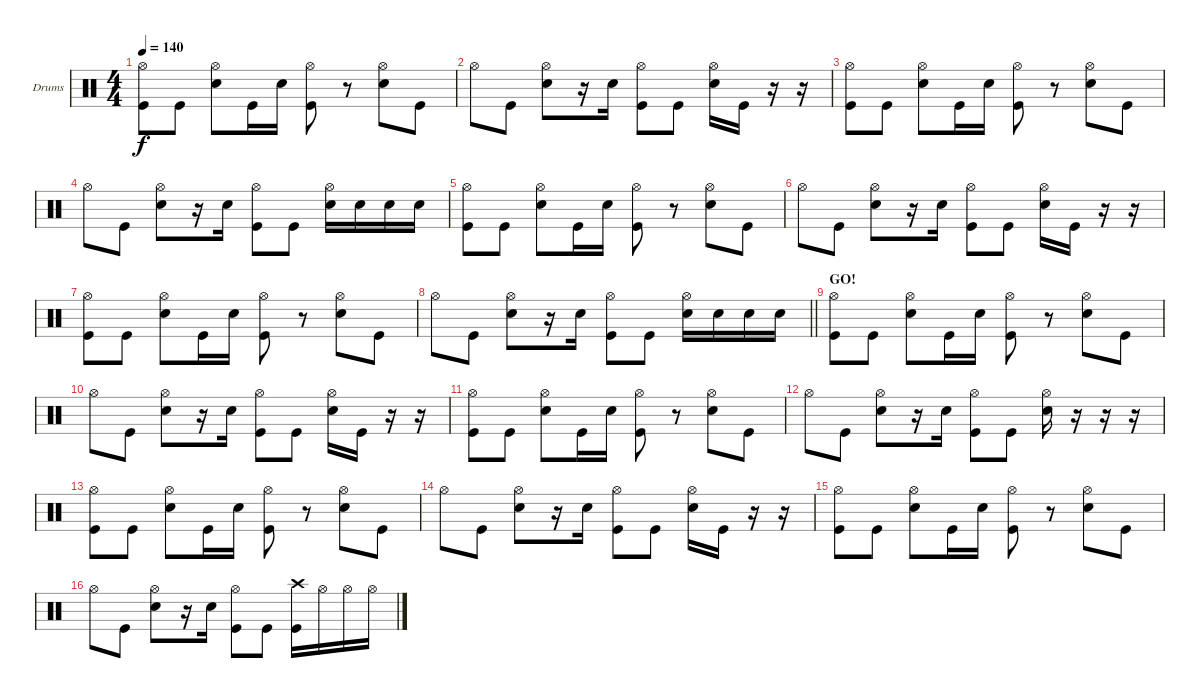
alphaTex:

\bracketExtendMode groupsimilarinstruments
\firstSystemTrackNameOrientation horizontal
\otherSystemsTrackNameOrientation horizontal
\track ("Dave McClain" "Drums") {instrument percussion}
\staff {score}
\articulation defaults
\ts (4 4)
\beaming (8 2 2 2 2)
\tempo 140
\clef neutral
\ks c
("Hi-Hat (open)" "Kick (hit)").8{dy f} "Kick (hit)".8 ("Hi-Hat (open)" "Snare (hit) 2").8 "Kick (hit)".16 "Snare (hit) 2".16 ("Hi-Hat (open)" "Kick (hit)").8 r.8 ("Hi-Hat (open)" "Snare (hit) 2").8 "Kick (hit)".8 |
"Hi-Hat (open)".8 "Kick (hit)".8 ("Hi-Hat (open)" "Snare (hit) 2").8 r.16 "Snare (hit) 2".16 ("Hi-Hat (open)" "Kick (hit)").8 "Kick (hit)".8 ("Hi-Hat (open)" "Snare (hit) 2").16 "Kick (hit)".16 r.16 r.16 |
("Hi-Hat (open)" "Kick (hit)").8 "Kick (hit)".8 ("Hi-Hat (open)" "Snare (hit) 2").8 "Kick (hit)".16 "Snare (hit) 2".16 ("Hi-Hat (open)" "Kick (hit)").8 r.8 ("Hi-Hat (open)" "Snare (hit) 2").8 "Kick (hit)".8 |
"Hi-Hat (open)".8 "Kick (hit)".8 ("Hi-Hat (open)" "Snare (hit) 2").8 r.16 "Snare (hit) 2".16 ("Hi-Hat (open)" "Kick (hit)").8 "Kick (hit)".8 ("Hi-Hat (open)" "Snare (hit) 2").16 "Snare (hit) 2".16 "Snare (hit) 2".16 "Snare (hit) 2".16 |
("Hi-Hat (open)" "Kick (hit)").8 "Kick (hit)".8 ("Hi-Hat (open)" "Snare (hit) 2").8 "Kick (hit)".16 "Snare (hit) 2".16 ("Hi-Hat (open)" "Kick (hit)").8 r.8 ("Hi-Hat (open)" "Snare (hit) 2").8 "Kick (hit)".8 |
"Hi-Hat (open)".8 "Kick (hit)".8 ("Hi-Hat (open)" "Snare (hit) 2").8 r.16 "Snare (hit) 2".16 ("Hi-Hat (open)" "Kick (hit)").8 "Kick (hit)".8 ("Hi-Hat (open)" "Snare (hit) 2").16 "Kick (hit)".16 r.16 r.16 |
("Hi-Hat (open)" "Kick (hit)").8 "Kick (hit)".8 ("Hi-Hat (open)" "Snare (hit) 2").8 "Kick (hit)".16 "Snare (hit) 2".16 ("Hi-Hat (open)" "Kick (hit)").8 r.8 ("Hi-Hat (open)" "Snare (hit) 2").8 "Kick (hit)".8 |
\barLineRight lightlight "Hi-Hat (open)".8 "Kick (hit)".8
("Hi-Hat (open)" "Snare (hit) 2").8 r.16 "Snare (hit) 2".16 ("Hi-Hat (open)" "Kick (hit)").8 "Kick (hit)".8 ("Hi-Hat (open)" "Snare (hit) 2").16 "Snare (hit) 2".16 "Snare (hit) 2".16 "Snare (hit) 2".16 |
\section ("" "GO!")
("Hi-Hat (open)" "Kick (hit)").8 "Kick (hit)".8 ("Hi-Hat (open)" "Snare (hit) 2").8 "Kick (hit)".16 "Snare (hit) 2".16 ("Hi-Hat (open)" "Kick (hit)").8 r.8 ("Hi-Hat (open)" "Snare (hit) 2").8 "Kick (hit)".8 |
"Hi-Hat (open)".8 "Kick (hit)".8 ("Hi-Hat (open)" "Snare (hit) 2").8 r.16 "Snare (hit) 2".16 ("Hi-Hat (open)" "Kick (hit)").8 "Kick (hit)".8 ("Hi-Hat (open)" "Snare (hit) 2").16 "Kick (hit)".16 r.16 r.16 |
("Hi-Hat (open)" "Kick (hit)").8 "Kick (hit)".8 ("Hi-Hat (open)" "Snare (hit) 2").8 "Kick (hit)".16 "Snare (hit) 2".16 ("Hi-Hat (open)" "Kick (hit)").8 r.8 ("Hi-Hat (open)" "Snare (hit) 2").8 "Kick (hit)".8 |
"Hi-Hat (open)".8 "Kick (hit)".8 ("Hi-Hat (open)" "Snare (hit) 2").8 r.16 "Snare (hit) 2".16 ("Hi-Hat (open)" "Kick (hit)").8 "Kick (hit)".8 ("Hi-Hat (open)" "Snare (hit) 2").16 r.16 r.16 r.16 |
("Hi-Hat (open)" "Kick (hit)").8 "Kick (hit)".8 ("Hi-Hat (open)" "Snare (hit) 2").8 "Kick (hit)".16 "Snare (hit) 2".16 ("Hi-Hat (open)" "Kick (hit)").8 r.8 ("Hi-Hat (open)" "Snare (hit) 2").8 "Kick (hit)".8 |
"Hi-Hat (open)".8 "Kick (hit)".8 ("Hi-Hat (open)" "Snare (hit) 2").8 r.16 "Snare (hit) 2".16 ("Hi-Hat (open)" "Kick (hit)").8 "Kick (hit)".8 ("Hi-Hat (open)" "Snare (hit) 2").16 "Kick (hit)".16 r.16 r.16 |
("Hi-Hat (open)" "Kick (hit)").8 "Kick (hit)".8 ("Hi-Hat (open)" "Snare (hit) 2").8 "Kick (hit)".16 "Snare (hit) 2".16 ("Hi-Hat (open)" "Kick (hit)").8 r.8 ("Hi-Hat (open)" "Snare (hit) 2").8 "Kick (hit)".8 |
"Hi-Hat (open)".8 "Kick (hit)".8 ("Hi-Hat (open)" "Snare (hit) 2").8 r.16 "Snare (hit) 2".16 ("Hi-Hat (open)" "Kick (hit)").8 "Kick (hit)".8 ("Crash high (hit)" "Kick (hit)").16 "Hi-Hat (open)".16 "Hi-Hat (open)".16 "Hi-Hat (open)".16
